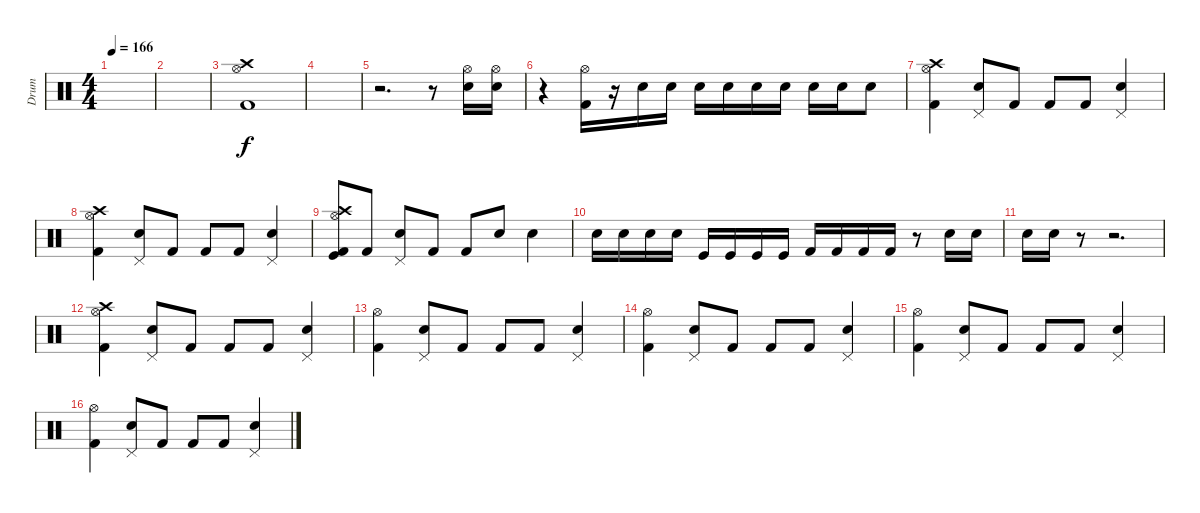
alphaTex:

\track ("Drum" "Drum") {instrument percussion}
\staff {score}
\articulation defaults
\ts (4 4)
\tempo 166
\clef neutral
\ks c
|
|
("Kick (hit) 2" "Hi-Hat (open)" "Crash high (hit)").1 |
|
r.2{d} r.8 ("Electric Snare (hit)" "Hi-Hat (open)").16 ("Electric Snare (hit)" "Hi-Hat (open)").16 |
r.4 ("Kick (hit) 2" "Hi-Hat (open)").16 r.16 "Snare (hit) 2".16 "Snare (hit) 2".16 "Snare (hit) 2".16 "Snare (hit) 2".16 "Snare (hit) 2".16 "Snare (hit) 2".16 "Snare (hit) 2".16 "Snare (hit) 2".16 "Metronome (bell)".8 |
("Kick (hit) 2" "Hi-Hat (open)" "Crash high (hit)").4 ("Electric Snare (hit)" "Pedal Hi-Hat (hit)").8 "Kick (hit) 2".8 "Kick (hit) 2".8 "Kick (hit) 2".8 ("Electric Snare (hit)" "Pedal Hi-Hat (hit)").4 |
("Kick (hit) 2" "Hi-Hat (open)" "Crash high (hit)").4 ("Electric Snare (hit)" "Pedal Hi-Hat (hit)").8 "Kick (hit) 2".8 "Kick (hit) 2".8 "Kick (hit) 2".8 ("Electric Snare (hit)" "Pedal Hi-Hat (hit)").4 |
("Kick (hit) 2" "Hi-Hat (open)" "Kick (hit)" "Crash high (hit)").8 "Kick (hit) 2".8 ("Electric Snare (hit)" "Pedal Hi-Hat (hit)").8 "Kick (hit) 2".8 "Kick (hit) 2".8 "Electric Snare (hit)".8 "Electric Snare (hit)".4 |
"Electric Snare (hit)".16 "Electric Snare (hit)".16 "Electric Snare (hit)".16 "Electric Snare (hit)".16 "Kick (hit)".16 "Kick (hit)".16 "Kick (hit)".16 "Kick (hit)".16 "Kick (hit) 2".16 "Kick (hit) 2".16 "Kick (hit) 2".16 "Kick (hit) 2".16 r.8 "Electric Snare (hit)".16 "Electric Snare (hit)".16 |
"Electric Snare (hit)".16 "Electric Snare (hit)".16 r.8 r.2{d} |
("Kick (hit) 2" "Hi-Hat (open)" "Crash high (hit)").4 ("Electric Snare (hit)" "Pedal Hi-Hat (hit)").8 "Kick (hit) 2".8 "Kick (hit) 2".8 "Kick (hit) 2".8 ("Electric Snare (hit)" "Pedal Hi-Hat (hit)").4 |
("Kick (hit) 2" "Hi-Hat (open)").4 ("Electric Snare (hit)" "Pedal Hi-Hat (hit)").8 "Kick (hit) 2".8 "Kick (hit) 2".8 "Kick (hit) 2".8 ("Electric Snare (hit)" "Pedal Hi-Hat (hit)").4 |
("Kick (hit) 2" "Hi-Hat (open)").4 ("Electric Snare (hit)" "Pedal Hi-Hat (hit)").8 "Kick (hit) 2".8 "Kick (hit) 2".8 "Kick (hit) 2".8 ("Electric Snare (hit)" "Pedal Hi-Hat (hit)").4 |
("Kick (hit) 2" "Hi-Hat (open)").4 ("Electric Snare (hit)" "Pedal Hi-Hat (hit)").8 "Kick (hit) 2".8 "Kick (hit) 2".8 "Kick (hit) 2".8 ("Electric Snare (hit)" "Pedal Hi-Hat (hit)").4 |
("Kick (hit) 2" "Hi-Hat (open)").4 ("Electric Snare (hit)" "Pedal Hi-Hat (hit)").8 "Kick (hit) 2".8 "Kick (hit) 2".8 "Kick (hit) 2".8 ("Electric Snare (hit)" "Pedal Hi-Hat (hit)").4
